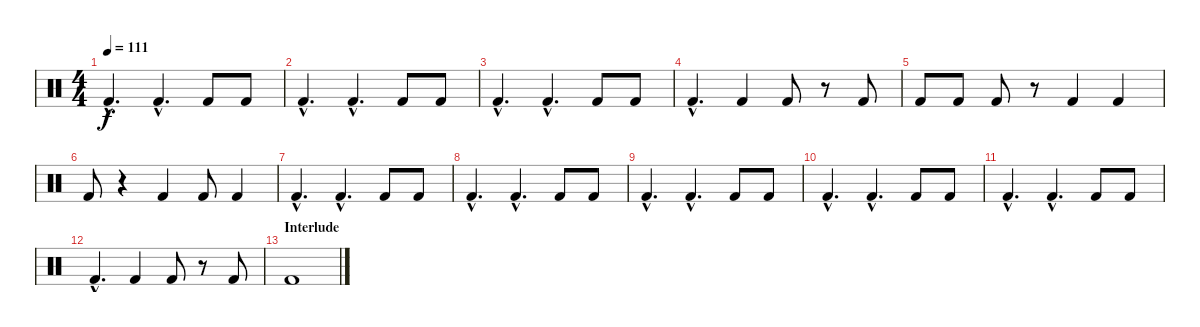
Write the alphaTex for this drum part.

\track "" {instrument percussion}
\staff {score}
\articulation defaults
\ts (4 4)
\tempo 111
\clef neutral
\ks c "Kick (hit) 2"{hac}.4{d dy f} "Kick (hit) 2"{hac}.4{d} "Kick (hit) 2".8 "Kick (hit) 2".8
|
"Kick (hit) 2"{hac}.4{d} "Kick (hit) 2"{hac}.4{d} "Kick (hit) 2".8 "Kick (hit) 2".8 |
"Kick (hit) 2"{hac}.4{d} "Kick (hit) 2"{hac}.4{d} "Kick (hit) 2".8 "Kick (hit) 2".8 |
"Kick (hit) 2"{hac}.4{d} "Kick (hit) 2".4 "Kick (hit) 2".8 r.8 "Kick (hit) 2".8 |
"Kick (hit) 2".8 "Kick (hit) 2".8 "Kick (hit) 2".8 r.8 "Kick (hit) 2".4 "Kick (hit) 2".4 |
"Kick (hit) 2".8 r.4 "Kick (hit) 2".4 "Kick (hit) 2".8 "Kick (hit) 2".4 |
"Kick (hit) 2"{hac}.4{d} "Kick (hit) 2"{hac}.4{d} "Kick (hit) 2".8 "Kick (hit) 2".8 |
"Kick (hit) 2"{hac}.4{d} "Kick (hit) 2"{hac}.4{d} "Kick (hit) 2".8 "Kick (hit) 2".8 |
"Kick (hit) 2"{hac}.4{d} "Kick (hit) 2"{hac}.4{d} "Kick (hit) 2".8 "Kick (hit) 2".8 |
"Kick (hit) 2"{hac}.4{d} "Kick (hit) 2"{hac}.4{d} "Kick (hit) 2".8 "Kick (hit) 2".8 |
"Kick (hit) 2"{hac}.4{d} "Kick (hit) 2"{hac}.4{d} "Kick (hit) 2".8 "Kick (hit) 2".8 |
"Kick (hit) 2"{hac}.4{d} "Kick (hit) 2".4 "Kick (hit) 2".8 r.8 "Kick (hit) 2".8 |
\section ("" "Interlude")
"Kick (hit) 2".1
